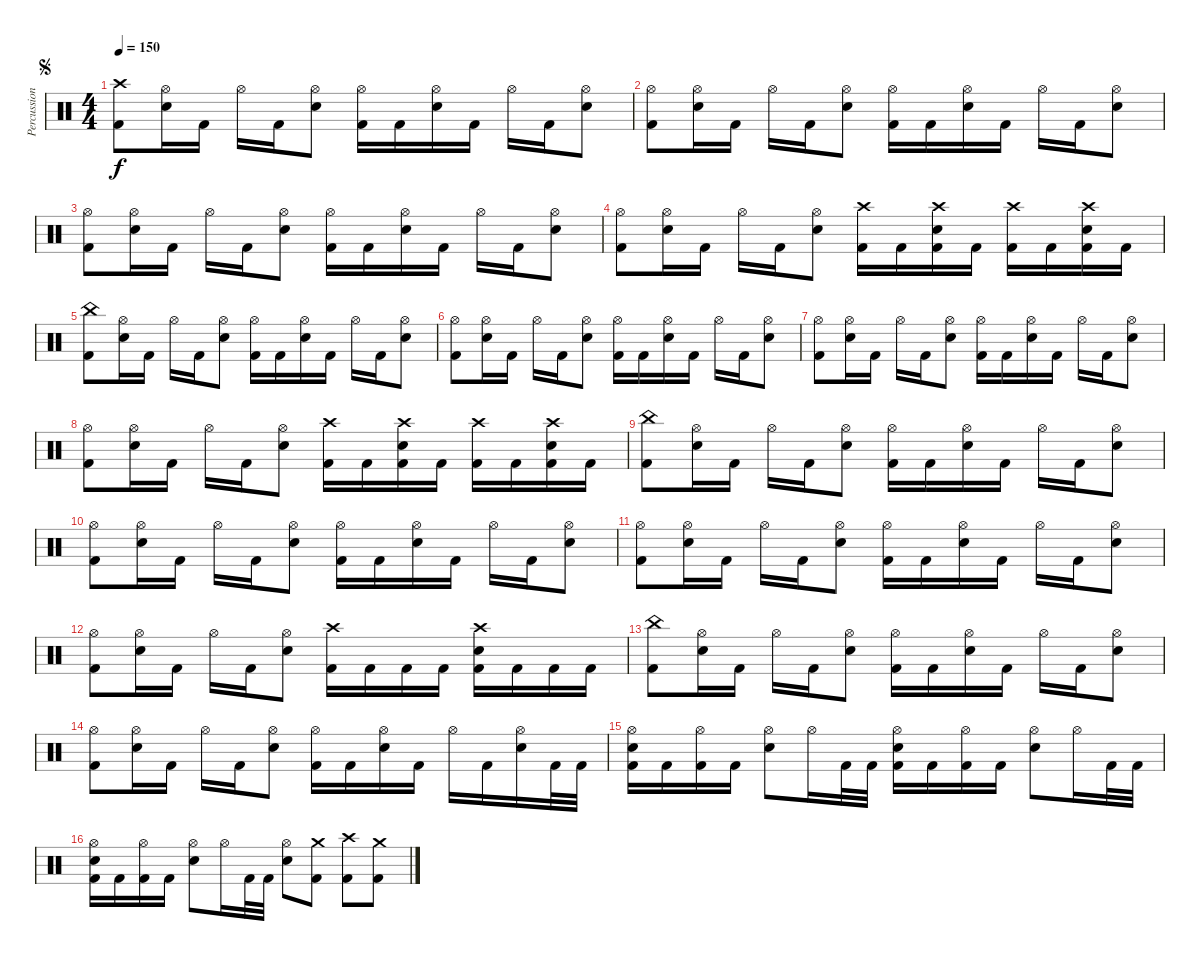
\track ("Percussion" "Percussion") {instrument percussion}
\staff {score}
\articulation defaults
\ts (4 4)
\jump segno
\tempo 150
\clef neutral
\ks c
("Crash high (hit)" "Kick (hit) 2").8{dy f} ("Hi-Hat (open)" "Electric Snare (hit)").16 "Kick (hit) 2".16 "Hi-Hat (open)".16 "Kick (hit) 2".16 ("Hi-Hat (open)" "Electric Snare (hit)").8 ("Hi-Hat (open)" "Kick (hit) 2").16 "Kick (hit) 2".16 ("Hi-Hat (open)" "Electric Snare (hit)").16 "Kick (hit) 2".16 "Hi-Hat (open)".16 "Kick (hit) 2".16 ("Hi-Hat (open)" "Electric Snare (hit)").8 |
("Hi-Hat (open)" "Kick (hit) 2").8 ("Hi-Hat (open)" "Electric Snare (hit)").16 "Kick (hit) 2".16 "Hi-Hat (open)".16 "Kick (hit) 2".16 ("Hi-Hat (open)" "Electric Snare (hit)").8 ("Hi-Hat (open)" "Kick (hit) 2").16 "Kick (hit) 2".16 ("Hi-Hat (open)" "Electric Snare (hit)").16 "Kick (hit) 2".16 "Hi-Hat (open)".16 "Kick (hit) 2".16 ("Hi-Hat (open)" "Electric Snare (hit)").8 |
("Hi-Hat (open)" "Kick (hit) 2").8 ("Hi-Hat (open)" "Electric Snare (hit)").16 "Kick (hit) 2".16 "Hi-Hat (open)".16 "Kick (hit) 2".16 ("Hi-Hat (open)" "Electric Snare (hit)").8 ("Hi-Hat (open)" "Kick (hit) 2").16 "Kick (hit) 2".16 ("Hi-Hat (open)" "Electric Snare (hit)").16 "Kick (hit) 2".16 "Hi-Hat (open)".16 "Kick (hit) 2".16 ("Hi-Hat (open)" "Electric Snare (hit)").8 |
("Hi-Hat (open)" "Kick (hit) 2").8 ("Hi-Hat (open)" "Electric Snare (hit)").16 "Kick (hit) 2".16 "Hi-Hat (open)".16 "Kick (hit) 2".16 ("Hi-Hat (open)" "Electric Snare (hit)").8 ("Crash high (hit)" "Kick (hit) 2").16 "Kick (hit) 2".16 ("Crash high (hit)" "Electric Snare (hit)" "Kick (hit) 2").16 "Kick (hit) 2".16 ("Crash high (hit)" "Kick (hit) 2").16 "Kick (hit) 2".16 ("Crash high (hit)" "Electric Snare (hit)" "Kick (hit) 2").16 "Kick (hit) 2".16 |
("China (hit)" "Kick (hit) 2").8 ("Hi-Hat (open)" "Electric Snare (hit)").16 "Kick (hit) 2".16 "Hi-Hat (open)".16 "Kick (hit) 2".16 ("Hi-Hat (open)" "Electric Snare (hit)").8 ("Hi-Hat (open)" "Kick (hit) 2").16 "Kick (hit) 2".16 ("Hi-Hat (open)" "Electric Snare (hit)").16 "Kick (hit) 2".16 "Hi-Hat (open)".16 "Kick (hit) 2".16 ("Hi-Hat (open)" "Electric Snare (hit)").8 |
("Hi-Hat (open)" "Kick (hit) 2").8 ("Hi-Hat (open)" "Electric Snare (hit)").16 "Kick (hit) 2".16 "Hi-Hat (open)".16 "Kick (hit) 2".16 ("Hi-Hat (open)" "Electric Snare (hit)").8 ("Hi-Hat (open)" "Kick (hit) 2").16 "Kick (hit) 2".16 ("Hi-Hat (open)" "Electric Snare (hit)").16 "Kick (hit) 2".16 "Hi-Hat (open)".16 "Kick (hit) 2".16 ("Hi-Hat (open)" "Electric Snare (hit)").8 |
("Hi-Hat (open)" "Kick (hit) 2").8 ("Hi-Hat (open)" "Electric Snare (hit)").16 "Kick (hit) 2".16 "Hi-Hat (open)".16 "Kick (hit) 2".16 ("Hi-Hat (open)" "Electric Snare (hit)").8 ("Hi-Hat (open)" "Kick (hit) 2").16 "Kick (hit) 2".16 ("Hi-Hat (open)" "Electric Snare (hit)").16 "Kick (hit) 2".16 "Hi-Hat (open)".16 "Kick (hit) 2".16 ("Hi-Hat (open)" "Electric Snare (hit)").8 |
("Hi-Hat (open)" "Kick (hit) 2").8 ("Hi-Hat (open)" "Electric Snare (hit)").16 "Kick (hit) 2".16 "Hi-Hat (open)".16 "Kick (hit) 2".16 ("Hi-Hat (open)" "Electric Snare (hit)").8 ("Crash high (hit)" "Kick (hit) 2").16 "Kick (hit) 2".16 ("Crash high (hit)" "Electric Snare (hit)" "Kick (hit) 2").16 "Kick (hit) 2".16 ("Crash high (hit)" "Kick (hit) 2").16 "Kick (hit) 2".16 ("Crash high (hit)" "Electric Snare (hit)" "Kick (hit) 2").16 "Kick (hit) 2".16 |
("China (hit)" "Kick (hit) 2").8 ("Hi-Hat (open)" "Electric Snare (hit)").16 "Kick (hit) 2".16 "Hi-Hat (open)".16 "Kick (hit) 2".16 ("Hi-Hat (open)" "Electric Snare (hit)").8 ("Hi-Hat (open)" "Kick (hit) 2").16 "Kick (hit) 2".16 ("Hi-Hat (open)" "Electric Snare (hit)").16 "Kick (hit) 2".16 "Hi-Hat (open)".16 "Kick (hit) 2".16 ("Hi-Hat (open)" "Electric Snare (hit)").8 |
("Hi-Hat (open)" "Kick (hit) 2").8 ("Hi-Hat (open)" "Electric Snare (hit)").16 "Kick (hit) 2".16 "Hi-Hat (open)".16 "Kick (hit) 2".16 ("Hi-Hat (open)" "Electric Snare (hit)").8 ("Hi-Hat (open)" "Kick (hit) 2").16 "Kick (hit) 2".16 ("Hi-Hat (open)" "Electric Snare (hit)").16 "Kick (hit) 2".16 "Hi-Hat (open)".16 "Kick (hit) 2".16 ("Hi-Hat (open)" "Electric Snare (hit)").8 |
("Hi-Hat (open)" "Kick (hit) 2").8 ("Hi-Hat (open)" "Electric Snare (hit)").16 "Kick (hit) 2".16 "Hi-Hat (open)".16 "Kick (hit) 2".16 ("Hi-Hat (open)" "Electric Snare (hit)").8 ("Hi-Hat (open)" "Kick (hit) 2").16 "Kick (hit) 2".16 ("Hi-Hat (open)" "Electric Snare (hit)").16 "Kick (hit) 2".16 "Hi-Hat (open)".16 "Kick (hit) 2".16 ("Hi-Hat (open)" "Electric Snare (hit)").8 |
("Hi-Hat (open)" "Kick (hit) 2").8 ("Hi-Hat (open)" "Electric Snare (hit)").16 "Kick (hit) 2".16 "Hi-Hat (open)".16 "Kick (hit) 2".16 ("Hi-Hat (open)" "Electric Snare (hit)").8 ("Crash high (hit)" "Kick (hit) 2").16 "Kick (hit) 2".16 "Kick (hit) 2".16 "Kick (hit) 2".16 ("Crash high (hit)" "Electric Snare (hit)" "Kick (hit) 2").16 "Kick (hit) 2".16 "Kick (hit) 2".16 "Kick (hit) 2".16 |
("China (hit)" "Kick (hit) 2").8 ("Hi-Hat (open)" "Electric Snare (hit)").16 "Kick (hit) 2".16 "Hi-Hat (open)".16 "Kick (hit) 2".16 ("Hi-Hat (open)" "Electric Snare (hit)").8 ("Hi-Hat (open)" "Kick (hit) 2").16 "Kick (hit) 2".16 ("Hi-Hat (open)" "Electric Snare (hit)").16 "Kick (hit) 2".16 "Hi-Hat (open)".16 "Kick (hit) 2".16 ("Hi-Hat (open)" "Electric Snare (hit)").8 |
("Hi-Hat (open)" "Kick (hit) 2").8 ("Hi-Hat (open)" "Electric Snare (hit)").16 "Kick (hit) 2".16 "Hi-Hat (open)".16 "Kick (hit) 2".16 ("Hi-Hat (open)" "Electric Snare (hit)").8 ("Hi-Hat (open)" "Kick (hit) 2").16 "Kick (hit) 2".16 ("Hi-Hat (open)" "Electric Snare (hit)").16 "Kick (hit) 2".16 "Hi-Hat (open)".16 "Kick (hit) 2".16 ("Hi-Hat (open)" "Electric Snare (hit)").16 "Kick (hit) 2".32 "Kick (hit) 2".32 |
("Hi-Hat (open)" "Electric Snare (hit)" "Kick (hit) 2").16 "Kick (hit) 2".16 ("Hi-Hat (open)" "Kick (hit) 2").16 "Kick (hit) 2".16 ("Hi-Hat (open)" "Electric Snare (hit)").8 "Hi-Hat (open)".16 "Kick (hit) 2".32 "Kick (hit) 2".32 ("Hi-Hat (open)" "Electric Snare (hit)" "Kick (hit) 2").16 "Kick (hit) 2".16 ("Hi-Hat (open)" "Kick (hit) 2").16 "Kick (hit) 2".16 ("Hi-Hat (open)" "Electric Snare (hit)").8 "Hi-Hat (open)".16 "Kick (hit) 2".32 "Kick (hit) 2".32 |
("Hi-Hat (open)" "Electric Snare (hit)" "Kick (hit) 2").16 "Kick (hit) 2".16 ("Hi-Hat (open)" "Kick (hit) 2").16 "Kick (hit) 2".16 ("Hi-Hat (open)" "Electric Snare (hit)").8 "Hi-Hat (open)".16 "Kick (hit) 2".32 "Kick (hit) 2".32 ("Hi-Hat (open)" "Electric Snare (hit)").8 ("Crash medium (hit)" "Kick (hit) 2").8 ("Crash high (hit)" "Kick (hit) 2").8 ("Crash medium (hit)" "Kick (hit) 2").8
